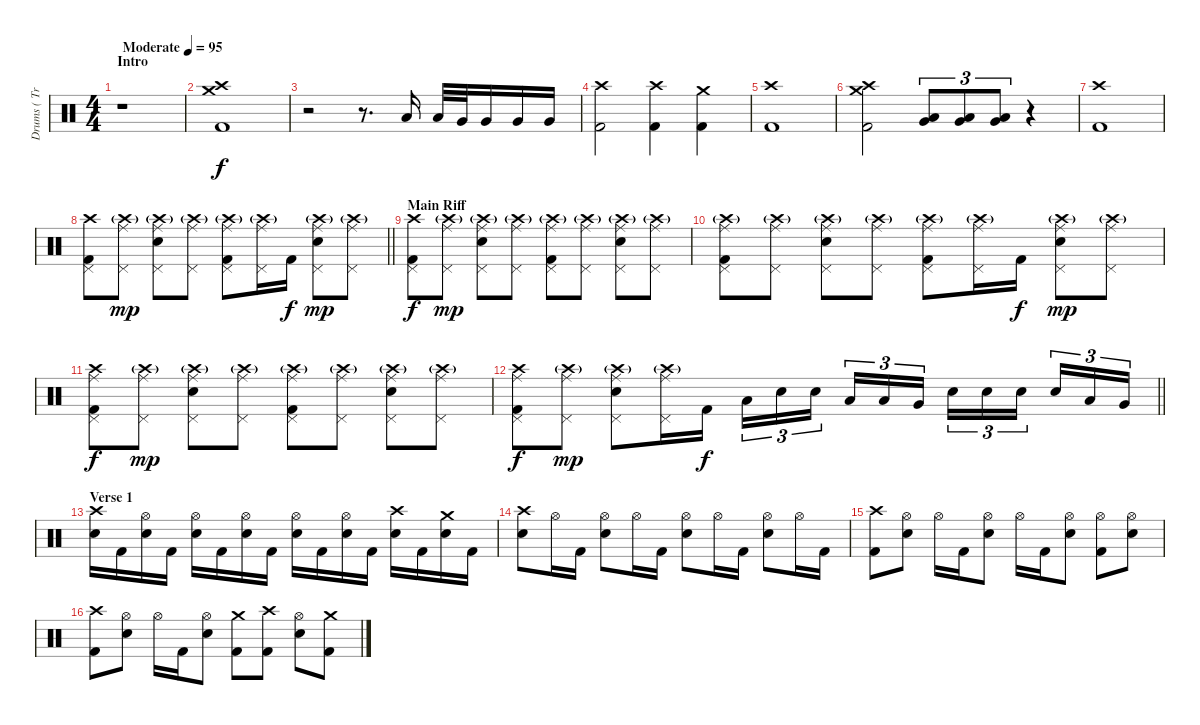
\track ("Drums ( Trivett Wingo )" "Drums ( Tr") {instrument percussion}
\staff {score}
\articulation defaults
\ts (4 4)
\section ("" "Intro")
\tempo (95 "Moderate")
\clef neutral
\ks c
r.1{dy f} |
("Crash high (hit)" "Crash medium (hit)" "Kick (hit) 2").1 |
r.2 r.8{d} "Low Tom (hit)".16 "Low Tom (hit)".32 "Very Low Tom (hit)".32 "Very Low Tom (hit)".16 "Very Low Tom (hit)".16 "Very Low Tom (hit)".16 |
("Crash high (hit)" "Kick (hit) 2").2 ("Crash high (hit)" "Kick (hit) 2").4 ("Crash medium (hit)" "Kick (hit) 2").4 |
("Crash high (hit)" "Kick (hit) 2").1 |
("Crash high (hit)" "Crash medium (hit)" "Kick (hit) 2").2 ("Low Tom (hit)" "Very Low Tom (hit)").8{tu (3 2)} ("Low Tom (hit)" "Very Low Tom (hit)").8{tu (3 2)} ("Low Tom (hit)" "Very Low Tom (hit)").8{tu (3 2)} r.4 |
("Crash high (hit)" "Kick (hit) 2").1 |
\barLineRight lightlight
("Crash high (hit)" "Pedal Hi-Hat (hit)" "Kick (hit) 2").8 ("Crash high (hit)"{g} "Ride (middle)" "Pedal Hi-Hat (hit)").8{dy mp} ("Crash high (hit)"{g} "Ride (middle)" "Pedal Hi-Hat (hit)" "Electric Snare (hit)").8 ("Crash high (hit)"{g} "Ride (middle)" "Pedal Hi-Hat (hit)").8 ("Crash high (hit)"{g} "Ride (middle)" "Pedal Hi-Hat (hit)" "Kick (hit) 2").8 ("Crash high (hit)"{g} "Ride (middle)" "Pedal Hi-Hat (hit)").16 "Kick (hit) 2".16{dy f} ("Crash high (hit)"{g} "Ride (middle)" "Pedal Hi-Hat (hit)" "Electric Snare (hit)").8{dy mp} ("Crash high (hit)"{g} "Ride (middle)" "Pedal Hi-Hat (hit)").8 |
\section ("" "Main Riff")
("Crash high (hit)" "Pedal Hi-Hat (hit)" "Kick (hit) 2").8{dy f} ("Crash high (hit)"{g} "Ride (middle)" "Pedal Hi-Hat (hit)").8{dy mp} ("Crash high (hit)"{g} "Ride (middle)" "Pedal Hi-Hat (hit)" "Electric Snare (hit)").8 ("Crash high (hit)"{g} "Ride (middle)" "Pedal Hi-Hat (hit)").8 ("Crash high (hit)"{g} "Ride (middle)" "Pedal Hi-Hat (hit)" "Kick (hit) 2").8 ("Crash high (hit)"{g} "Ride (middle)" "Pedal Hi-Hat (hit)").8 ("Crash high (hit)"{g} "Ride (middle)" "Pedal Hi-Hat (hit)" "Electric Snare (hit)").8 ("Crash high (hit)"{g} "Ride (middle)" "Pedal Hi-Hat (hit)").8 |
("Crash high (hit)"{g} "Ride (middle)" "Pedal Hi-Hat (hit)" "Kick (hit) 2").8 ("Crash high (hit)"{g} "Ride (middle)" "Pedal Hi-Hat (hit)").8 ("Crash high (hit)"{g} "Ride (middle)" "Pedal Hi-Hat (hit)" "Electric Snare (hit)").8 ("Crash high (hit)"{g} "Ride (middle)" "Pedal Hi-Hat (hit)").8 ("Crash high (hit)"{g} "Ride (middle)" "Pedal Hi-Hat (hit)" "Kick (hit) 2").8 ("Crash high (hit)"{g} "Ride (middle)" "Pedal Hi-Hat (hit)").16 "Kick (hit) 2".16{dy f} ("Crash high (hit)"{g} "Ride (middle)" "Pedal Hi-Hat (hit)" "Electric Snare (hit)").8{dy mp} ("Crash high (hit)"{g} "Ride (middle)" "Pedal Hi-Hat (hit)").8 |
("Crash high (hit)" "Ride (middle)" "Pedal Hi-Hat (hit)" "Kick (hit) 2").8{dy f} ("Crash high (hit)"{g} "Ride (middle)" "Pedal Hi-Hat (hit)").8{dy mp} ("Crash high (hit)"{g} "Ride (middle)" "Pedal Hi-Hat (hit)" "Electric Snare (hit)").8 ("Crash high (hit)"{g} "Ride (middle)" "Pedal Hi-Hat (hit)").8 ("Crash high (hit)"{g} "Ride (middle)" "Pedal Hi-Hat (hit)" "Kick (hit) 2").8 ("Crash high (hit)"{g} "Ride (middle)" "Pedal Hi-Hat (hit)").8 ("Crash high (hit)"{g} "Ride (middle)" "Pedal Hi-Hat (hit)" "Electric Snare (hit)").8 ("Crash high (hit)"{g} "Ride (middle)" "Pedal Hi-Hat (hit)").8 |
\barLineRight lightlight
("Crash high (hit)" "Ride (middle)" "Pedal Hi-Hat (hit)" "Kick (hit) 2").8{dy f} ("Crash high (hit)"{g} "Ride (middle)" "Pedal Hi-Hat (hit)").8{dy mp} ("Crash high (hit)"{g} "Ride (middle)" "Pedal Hi-Hat (hit)" "Electric Snare (hit)").8 ("Crash high (hit)"{g} "Ride (middle)" "Pedal Hi-Hat (hit)").16 "Kick (hit) 2".16{dy f} "Low Tom (hit)".16{tu (3 2)} "Electric Snare (hit)".16{tu (3 2)} "Electric Snare (hit)".16{tu (3 2) beam splitsecondary} "Low Tom (hit)".16{tu (3 2)} "Low Tom (hit)".16{tu (3 2)} "Very Low Tom (hit)".16{tu (3 2)} "Electric Snare (hit)".16{tu (3 2)} "Electric Snare (hit)".16{tu (3 2)} "Electric Snare (hit)".16{tu (3 2) beam splitsecondary} "Electric Snare (hit)".16{tu (3 2)} "Low Tom (hit)".16{tu (3 2)} "Very Low Tom (hit)".16{tu (3 2)} |
\section ("" "Verse 1")
("Crash high (hit)" "Electric Snare (hit)").16 "Kick (hit) 2".16 ("Hi-Hat (open)" "Electric Snare (hit)").16 "Kick (hit) 2".16 ("Hi-Hat (open)" "Electric Snare (hit)").16 "Kick (hit) 2".16 ("Hi-Hat (open)" "Electric Snare (hit)").16 "Kick (hit) 2".16 ("Hi-Hat (open)" "Electric Snare (hit)").16 "Kick (hit) 2".16 ("Hi-Hat (open)" "Electric Snare (hit)").16 "Kick (hit) 2".16 ("Crash high (hit)" "Electric Snare (hit)").16 "Kick (hit) 2".16 ("Crash medium (hit)" "Electric Snare (hit)").16 "Kick (hit) 2".16 |
("Crash high (hit)" "Electric Snare (hit)").8 "Hi-Hat (open)".16 "Kick (hit) 2".16 ("Hi-Hat (open)" "Electric Snare (hit)").8 "Hi-Hat (open)".16 "Kick (hit) 2".16 ("Hi-Hat (open)" "Electric Snare (hit)").8 "Hi-Hat (open)".16 "Kick (hit) 2".16 ("Hi-Hat (open)" "Electric Snare (hit)").8 "Hi-Hat (open)".16 "Kick (hit) 2".16 |
("Crash high (hit)" "Kick (hit) 2").8 ("Hi-Hat (open)" "Electric Snare (hit)").8 "Hi-Hat (open)".16 "Kick (hit) 2".16 ("Hi-Hat (open)" "Electric Snare (hit)").8 "Hi-Hat (open)".16 "Kick (hit) 2".16 ("Hi-Hat (open)" "Electric Snare (hit)").8 ("Hi-Hat (open)" "Kick (hit) 2").8 ("Hi-Hat (open)" "Electric Snare (hit)").8 |
("Crash high (hit)" "Kick (hit) 2").8 ("Hi-Hat (open)" "Electric Snare (hit)").8 "Hi-Hat (open)".16 "Kick (hit) 2".16 ("Hi-Hat (open)" "Electric Snare (hit)").8 ("Crash medium (hit)" "Kick (hit) 2").8 ("Crash high (hit)" "Kick (hit) 2").8 ("Hi-Hat (open)" "Electric Snare (hit)").8 ("Crash medium (hit)" "Kick (hit) 2").8
